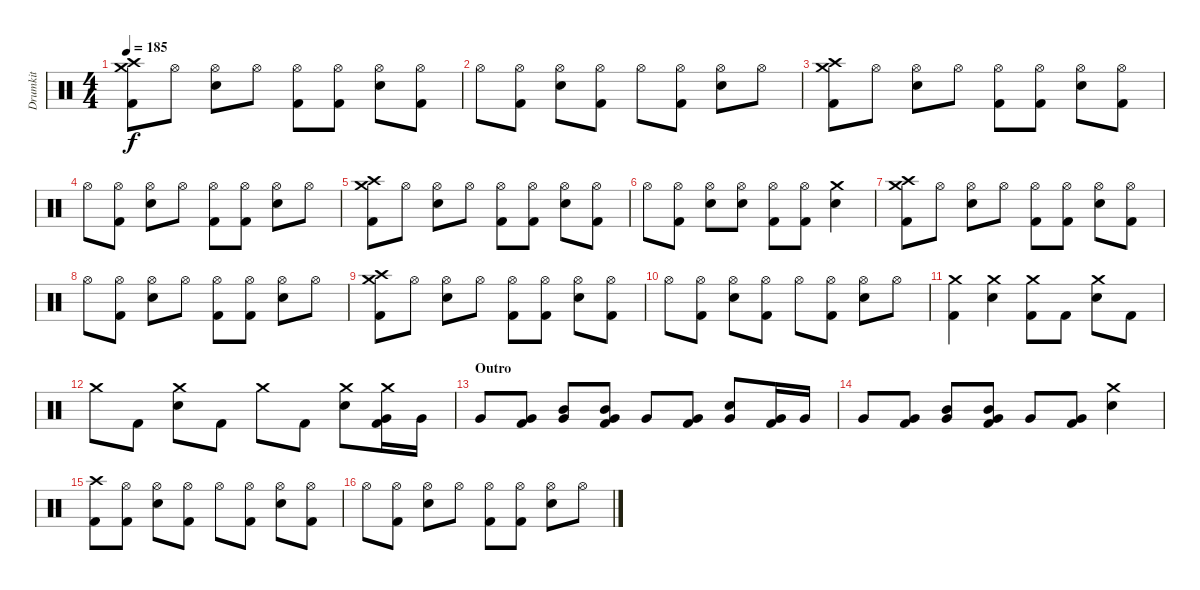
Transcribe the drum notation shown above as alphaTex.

\track ("Drumkit" "Drumkit") {instrument percussion}
\staff {score}
\articulation defaults
\ts (4 4)
\tempo 185
\clef neutral
\ks c
("Crash high (hit)" "Kick (hit) 2" "Crash medium (hit)").8{dy f} "Hi-Hat (open)".8 ("Hi-Hat (open)" "Snare (hit) 2").8 "Hi-Hat (open)".8 ("Hi-Hat (open)" "Kick (hit) 2").8 ("Hi-Hat (open)" "Kick (hit) 2").8 ("Hi-Hat (open)" "Snare (hit) 2").8 ("Hi-Hat (open)" "Kick (hit) 2").8 |
"Hi-Hat (open)".8 ("Hi-Hat (open)" "Kick (hit) 2").8 ("Hi-Hat (open)" "Snare (hit) 2").8 ("Hi-Hat (open)" "Kick (hit) 2").8 "Hi-Hat (open)".8 ("Hi-Hat (open)" "Kick (hit) 2").8 ("Hi-Hat (open)" "Snare (hit) 2").8 "Hi-Hat (open)".8 |
("Crash high (hit)" "Kick (hit) 2" "Crash medium (hit)").8 "Hi-Hat (open)".8 ("Hi-Hat (open)" "Snare (hit) 2").8 "Hi-Hat (open)".8 ("Hi-Hat (open)" "Kick (hit) 2").8 ("Hi-Hat (open)" "Kick (hit) 2").8 ("Hi-Hat (open)" "Snare (hit) 2").8 ("Hi-Hat (open)" "Kick (hit) 2").8 |
"Hi-Hat (open)".8 ("Hi-Hat (open)" "Kick (hit) 2").8 ("Hi-Hat (open)" "Snare (hit) 2").8 "Hi-Hat (open)".8 ("Hi-Hat (open)" "Kick (hit) 2").8 ("Hi-Hat (open)" "Kick (hit) 2").8 ("Hi-Hat (open)" "Snare (hit) 2").8 "Hi-Hat (open)".8 |
("Crash high (hit)" "Kick (hit) 2" "Crash medium (hit)").8 "Hi-Hat (open)".8 ("Hi-Hat (open)" "Snare (hit) 2").8 "Hi-Hat (open)".8 ("Hi-Hat (open)" "Kick (hit) 2").8 ("Hi-Hat (open)" "Kick (hit) 2").8 ("Hi-Hat (open)" "Snare (hit) 2").8 ("Hi-Hat (open)" "Kick (hit) 2").8 |
"Hi-Hat (open)".8 ("Hi-Hat (open)" "Kick (hit) 2").8 ("Hi-Hat (open)" "Snare (hit) 2").8 ("Hi-Hat (open)" "Snare (hit) 2").8 ("Hi-Hat (open)" "Kick (hit) 2").8 ("Hi-Hat (open)" "Kick (hit) 2").8 ("Crash medium (hit)" "Snare (hit) 2").4 |
("Crash high (hit)" "Kick (hit) 2" "Crash medium (hit)").8 "Hi-Hat (open)".8 ("Hi-Hat (open)" "Snare (hit) 2").8 "Hi-Hat (open)".8 ("Hi-Hat (open)" "Kick (hit) 2").8 ("Hi-Hat (open)" "Kick (hit) 2").8 ("Hi-Hat (open)" "Snare (hit) 2").8 ("Hi-Hat (open)" "Kick (hit) 2").8 |
"Hi-Hat (open)".8 ("Hi-Hat (open)" "Kick (hit) 2").8 ("Hi-Hat (open)" "Snare (hit) 2").8 "Hi-Hat (open)".8 ("Hi-Hat (open)" "Kick (hit) 2").8 ("Hi-Hat (open)" "Kick (hit) 2").8 ("Hi-Hat (open)" "Snare (hit) 2").8 "Hi-Hat (open)".8 |
("Crash high (hit)" "Kick (hit) 2" "Crash medium (hit)").8 "Hi-Hat (open)".8 ("Hi-Hat (open)" "Snare (hit) 2").8 "Hi-Hat (open)".8 ("Hi-Hat (open)" "Kick (hit) 2").8 ("Hi-Hat (open)" "Kick (hit) 2").8 ("Hi-Hat (open)" "Snare (hit) 2").8 ("Hi-Hat (open)" "Kick (hit) 2").8 |
"Hi-Hat (open)".8 ("Hi-Hat (open)" "Kick (hit) 2").8 ("Hi-Hat (open)" "Snare (hit) 2").8 ("Hi-Hat (open)" "Kick (hit) 2").8 "Hi-Hat (open)".8 ("Hi-Hat (open)" "Kick (hit) 2").8 ("Hi-Hat (open)" "Snare (hit) 2").8 "Hi-Hat (open)".8 |
("Kick (hit) 2" "Crash medium (hit)").4 ("Snare (hit) 2" "Crash medium (hit)").4 ("Kick (hit) 2" "Crash medium (hit)").8 "Kick (hit) 2".8 ("Snare (hit) 2" "Crash medium (hit)").8 "Kick (hit) 2".8 |
"Crash medium (hit)".8 "Kick (hit) 2".8 ("Snare (hit) 2" "Crash medium (hit)").8 "Kick (hit) 2".8 "Crash medium (hit)".8 "Kick (hit) 2".8 ("Snare (hit) 2" "Crash medium (hit)").8 ("Crash medium (hit)" "Very Low Tom (hit)" "Kick (hit) 2").16 "Very Low Tom (hit)".16 |
\section ("" "Outro")
"Very Low Tom (hit)".8 ("Very Low Tom (hit)" "Kick (hit) 2").8 ("Mid Tom (hit)" "Very Low Tom (hit)").8 ("Mid Tom (hit)" "Very Low Tom (hit)" "Kick (hit) 2").8 "Very Low Tom (hit)".8 ("Very Low Tom (hit)" "Kick (hit) 2").8 ("Very Low Tom (hit)" "Snare (hit) 2").8 ("Very Low Tom (hit)" "Kick (hit) 2").16 "Very Low Tom (hit)".16 |
"Very Low Tom (hit)".8 ("Very Low Tom (hit)" "Kick (hit) 2").8 ("Mid Tom (hit)" "Very Low Tom (hit)").8 ("Mid Tom (hit)" "Very Low Tom (hit)" "Kick (hit) 2").8 "Very Low Tom (hit)".8 ("Very Low Tom (hit)" "Kick (hit) 2").8 ("Snare (hit) 2" "Crash medium (hit)").4 |
("Crash high (hit)" "Kick (hit) 2").8 ("Hi-Hat (open)" "Kick (hit) 2").8 ("Hi-Hat (open)" "Snare (hit) 2").8 ("Hi-Hat (open)" "Kick (hit) 2").8 "Hi-Hat (open)".8 ("Hi-Hat (open)" "Kick (hit) 2").8 ("Hi-Hat (open)" "Snare (hit) 2").8 ("Hi-Hat (open)" "Kick (hit) 2").8 |
"Hi-Hat (open)".8 ("Hi-Hat (open)" "Kick (hit) 2").8 ("Hi-Hat (open)" "Snare (hit) 2").8 "Hi-Hat (open)".8 ("Hi-Hat (open)" "Kick (hit) 2").8 ("Hi-Hat (open)" "Kick (hit) 2").8 ("Hi-Hat (open)" "Snare (hit) 2").8 "Hi-Hat (open)".8
